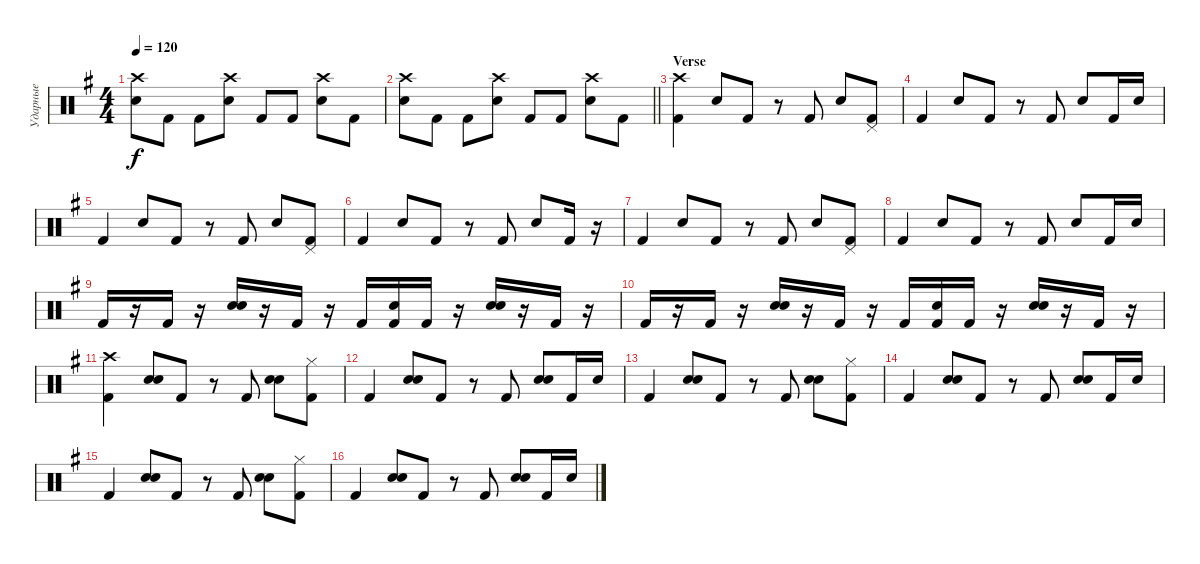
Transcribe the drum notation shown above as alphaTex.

\track ("Ударные" "Ударные") {instrument percussion}
\staff {score}
\articulation defaults
\ts (4 4)
\tempo 120
\clef neutral
\ks g
("Snare (hit) 2" "Crash high (hit)").8{dy f} "Kick (hit) 2".8 "Kick (hit) 2".8 ("Snare (hit) 2" "Crash high (hit)").8 "Kick (hit) 2".8 "Kick (hit) 2".8 ("Snare (hit) 2" "Crash high (hit)").8 "Kick (hit) 2".8 |
\barLineRight lightlight
("Snare (hit) 2" "Crash high (hit)").8 "Kick (hit) 2".8 "Kick (hit) 2".8 ("Snare (hit) 2" "Crash high (hit)").8 "Kick (hit) 2".8 "Kick (hit) 2".8 ("Snare (hit) 2" "Crash high (hit)").8 "Kick (hit) 2".8 |
\section ("" "Verse")
("Kick (hit) 2" "Crash high (hit)").4 "Snare (hit) 2".8 "Kick (hit) 2".8 r.8 "Kick (hit) 2".8 "Snare (hit) 2".8 ("Kick (hit) 2" "Pedal Hi-Hat (hit)").8 |
"Kick (hit) 2".4 "Snare (hit) 2".8 "Kick (hit) 2".8 r.8 "Kick (hit) 2".8 "Snare (hit) 2".8 "Kick (hit) 2".16 "Snare (hit) 2".16 |
"Kick (hit) 2".4 "Snare (hit) 2".8 "Kick (hit) 2".8 r.8 "Kick (hit) 2".8 "Snare (hit) 2".8 ("Kick (hit) 2" "Pedal Hi-Hat (hit)").8 |
"Kick (hit) 2".4 "Snare (hit) 2".8 "Kick (hit) 2".8 r.8 "Kick (hit) 2".8 "Snare (hit) 2".8 "Kick (hit) 2".16 r.16 |
"Kick (hit) 2".4 "Snare (hit) 2".8 "Kick (hit) 2".8 r.8 "Kick (hit) 2".8 "Snare (hit) 2".8 ("Kick (hit) 2" "Pedal Hi-Hat (hit)").8 |
"Kick (hit) 2".4 "Snare (hit) 2".8 "Kick (hit) 2".8 r.8 "Kick (hit) 2".8 "Snare (hit) 2".8 "Kick (hit) 2".16 "Snare (hit) 2".16 |
"Kick (hit) 2".16 r.16 "Kick (hit) 2".16 r.16 ("Snare (hit) 2" "Electric Snare (hit)").16 r.16 "Kick (hit) 2".16 r.16 "Kick (hit) 2".16 ("Kick (hit) 2" "Electric Snare (hit)").16 "Kick (hit) 2".16 r.16 ("Snare (hit) 2" "Electric Snare (hit)").16 r.16 "Kick (hit) 2".16 r.16 |
"Kick (hit) 2".16 r.16 "Kick (hit) 2".16 r.16 ("Snare (hit) 2" "Electric Snare (hit)").16 r.16 "Kick (hit) 2".16 r.16 "Kick (hit) 2".16 ("Kick (hit) 2" "Electric Snare (hit)").16 "Kick (hit) 2".16 r.16 ("Snare (hit) 2" "Electric Snare (hit)").16 r.16 "Kick (hit) 2".16 r.16 |
("Kick (hit) 2" "Crash high (hit)").4 ("Snare (hit) 2" "Electric Snare (hit)").8 "Kick (hit) 2".8 r.8 "Kick (hit) 2".8 ("Snare (hit) 2" "Electric Snare (hit)").8 ("Kick (hit) 2" "Hi-Hat (closed)").8 |
"Kick (hit) 2".4 ("Snare (hit) 2" "Electric Snare (hit)").8 "Kick (hit) 2".8 r.8 "Kick (hit) 2".8 ("Snare (hit) 2" "Electric Snare (hit)").8 "Kick (hit) 2".16 "Snare (hit) 2".16 |
"Kick (hit) 2".4 ("Snare (hit) 2" "Electric Snare (hit)").8 "Kick (hit) 2".8 r.8 "Kick (hit) 2".8 ("Snare (hit) 2" "Electric Snare (hit)").8 ("Kick (hit) 2" "Hi-Hat (closed)").8 |
"Kick (hit) 2".4 ("Snare (hit) 2" "Electric Snare (hit)").8 "Kick (hit) 2".8 r.8 "Kick (hit) 2".8 ("Snare (hit) 2" "Electric Snare (hit)").8 "Kick (hit) 2".16 "Snare (hit) 2".16 |
"Kick (hit) 2".4 ("Snare (hit) 2" "Electric Snare (hit)").8 "Kick (hit) 2".8 r.8 "Kick (hit) 2".8 ("Snare (hit) 2" "Electric Snare (hit)").8 ("Kick (hit) 2" "Hi-Hat (closed)").8 |
"Kick (hit) 2".4 ("Snare (hit) 2" "Electric Snare (hit)").8 "Kick (hit) 2".8 r.8 "Kick (hit) 2".8 ("Snare (hit) 2" "Electric Snare (hit)").8 "Kick (hit) 2".16 "Snare (hit) 2".16
